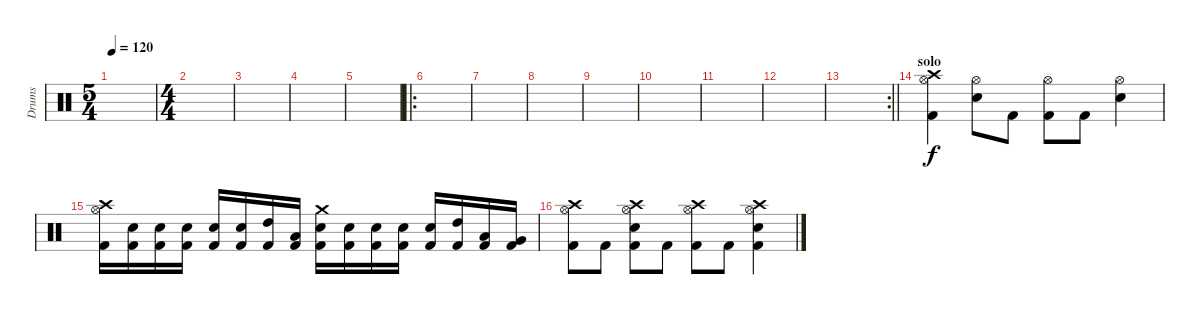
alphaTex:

\track ("Drums" "Drums") {instrument percussion}
\staff {score}
\articulation defaults
\ts (5 4)
\tempo 120
\clef neutral
\ks c
|
\ts (4 4)
|
|
|
|
\ro
|
|
|
|
|
|
|
\rc 2
\barLineRight lightlight
|
\section ("" "solo")
("Crash high (hit)" "Hi-Hat (open)" "Kick (hit) 2").4{dy f} ("Hi-Hat (open)" "Electric Snare (hit)").8 "Kick (hit) 2".8 ("Hi-Hat (open)" "Kick (hit) 2").8 "Kick (hit) 2".8 ("Hi-Hat (open)" "Electric Snare (hit)").4 |
("Crash high (hit)" "Hi-Hat (open)" "Kick (hit) 2").16 ("Electric Snare (hit)" "Kick (hit) 2").16 ("Electric Snare (hit)" "Kick (hit) 2").16 ("Electric Snare (hit)" "Kick (hit) 2").16 ("Electric Snare (hit)" "Kick (hit) 2").16 ("Electric Snare (hit)" "Kick (hit) 2").16 ("High Tom (hit)" "Kick (hit) 2").16 ("Low Tom (hit)" "Kick (hit) 2").16 ("Crash medium (hit)" "Electric Snare (hit)" "Kick (hit) 2").16 ("Electric Snare (hit)" "Kick (hit) 2").16 ("Electric Snare (hit)" "Kick (hit) 2").16 ("Electric Snare (hit)" "Kick (hit) 2").16 ("Electric Snare (hit)" "Kick (hit) 2").16 ("High Tom (hit)" "Kick (hit) 2").16 ("Low Tom (hit)" "Kick (hit) 2").16 ("Very Low Tom (hit)" "Kick (hit) 2").16 |
("Crash high (hit)" "Hi-Hat (open)" "Kick (hit) 2").8 "Kick (hit) 2".8 ("Crash high (hit)" "Hi-Hat (open)" "Electric Snare (hit)" "Kick (hit) 2").8 "Kick (hit) 2".8 ("Crash high (hit)" "Hi-Hat (open)" "Kick (hit) 2").8 "Kick (hit) 2".8 ("Crash high (hit)" "Hi-Hat (open)" "Electric Snare (hit)" "Kick (hit) 2").4
